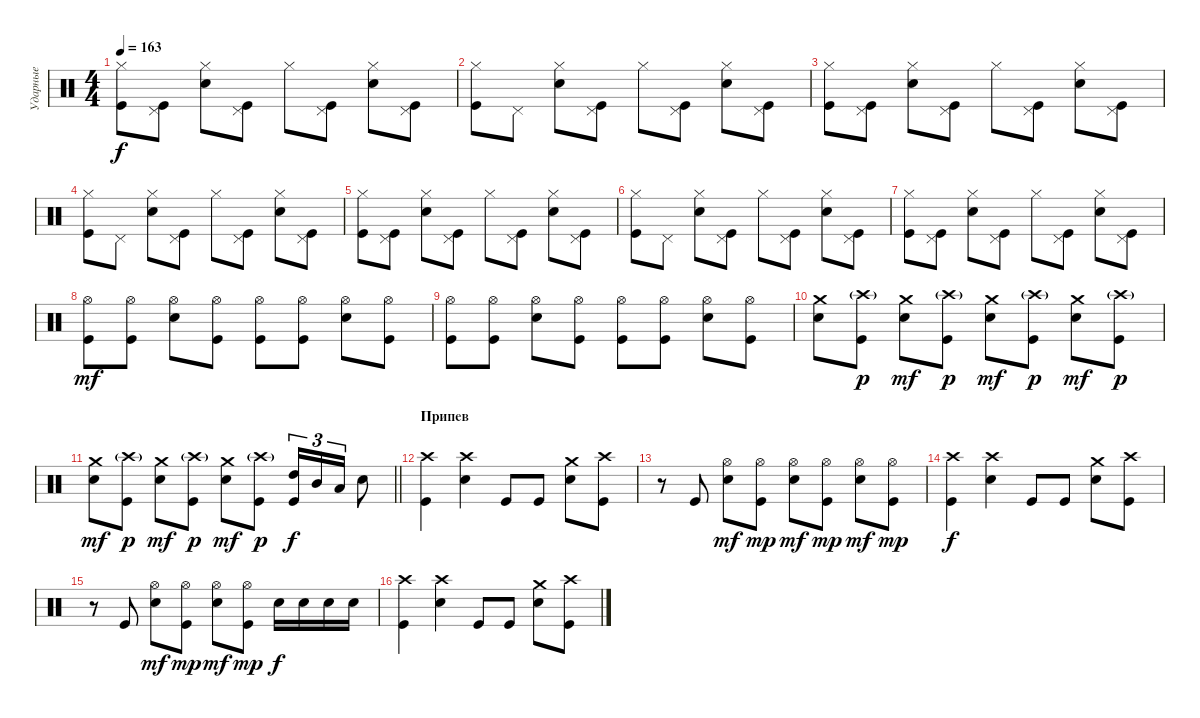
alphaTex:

\track ("Ударные" "Ударные") {instrument percussion}
\staff
\articulation defaults
\ts (4 4)
\tempo 163
\clef neutral
\ks c
("Hi-Hat (closed)" "Kick (hit)").8{dy f} ("Pedal Hi-Hat (hit)" "Kick (hit)").8 ("Hi-Hat (closed)" "Snare (hit) 2").8 ("Pedal Hi-Hat (hit)" "Kick (hit)").8 "Hi-Hat (closed)".8 ("Pedal Hi-Hat (hit)" "Kick (hit)").8 ("Hi-Hat (closed)" "Snare (hit) 2").8 ("Pedal Hi-Hat (hit)" "Kick (hit)").8 |
("Hi-Hat (closed)" "Kick (hit)").8 "Pedal Hi-Hat (hit)".8 ("Hi-Hat (closed)" "Snare (hit) 2").8 ("Pedal Hi-Hat (hit)" "Kick (hit)").8 "Hi-Hat (closed)".8 ("Pedal Hi-Hat (hit)" "Kick (hit)").8 ("Hi-Hat (closed)" "Snare (hit) 2").8 ("Pedal Hi-Hat (hit)" "Kick (hit)").8 |
("Hi-Hat (closed)" "Kick (hit)").8 ("Pedal Hi-Hat (hit)" "Kick (hit)").8 ("Hi-Hat (closed)" "Snare (hit) 2").8 ("Pedal Hi-Hat (hit)" "Kick (hit)").8 "Hi-Hat (closed)".8 ("Pedal Hi-Hat (hit)" "Kick (hit)").8 ("Hi-Hat (closed)" "Snare (hit) 2").8 ("Pedal Hi-Hat (hit)" "Kick (hit)").8 |
("Hi-Hat (closed)" "Kick (hit)").8 "Pedal Hi-Hat (hit)".8 ("Hi-Hat (closed)" "Snare (hit) 2").8 ("Pedal Hi-Hat (hit)" "Kick (hit)").8 "Hi-Hat (closed)".8 ("Pedal Hi-Hat (hit)" "Kick (hit)").8 ("Hi-Hat (closed)" "Snare (hit) 2").8 ("Pedal Hi-Hat (hit)" "Kick (hit)").8 |
("Hi-Hat (closed)" "Kick (hit)").8 ("Pedal Hi-Hat (hit)" "Kick (hit)").8 ("Hi-Hat (closed)" "Snare (hit) 2").8 ("Pedal Hi-Hat (hit)" "Kick (hit)").8 "Hi-Hat (closed)".8 ("Pedal Hi-Hat (hit)" "Kick (hit)").8 ("Hi-Hat (closed)" "Snare (hit) 2").8 ("Pedal Hi-Hat (hit)" "Kick (hit)").8 |
("Hi-Hat (closed)" "Kick (hit)").8 "Pedal Hi-Hat (hit)".8 ("Hi-Hat (closed)" "Snare (hit) 2").8 ("Pedal Hi-Hat (hit)" "Kick (hit)").8 "Hi-Hat (closed)".8 ("Pedal Hi-Hat (hit)" "Kick (hit)").8 ("Hi-Hat (closed)" "Snare (hit) 2").8 ("Pedal Hi-Hat (hit)" "Kick (hit)").8 |
("Hi-Hat (closed)" "Kick (hit)").8 ("Pedal Hi-Hat (hit)" "Kick (hit)").8 ("Hi-Hat (closed)" "Snare (hit) 2").8 ("Pedal Hi-Hat (hit)" "Kick (hit)").8 "Hi-Hat (closed)".8 ("Pedal Hi-Hat (hit)" "Kick (hit)").8 ("Hi-Hat (closed)" "Snare (hit) 2").8 ("Pedal Hi-Hat (hit)" "Kick (hit)").8 |
("Hi-Hat (open)" "Kick (hit)").8{dy mf} ("Hi-Hat (open)" "Kick (hit)").8 ("Hi-Hat (open)" "Snare (hit) 2").8 ("Hi-Hat (open)" "Kick (hit)").8 ("Hi-Hat (open)" "Kick (hit)").8 ("Hi-Hat (open)" "Kick (hit)").8 ("Hi-Hat (open)" "Snare (hit) 2").8 ("Hi-Hat (open)" "Kick (hit)").8 |
("Hi-Hat (open)" "Kick (hit)").8 ("Hi-Hat (open)" "Kick (hit)").8 ("Hi-Hat (open)" "Snare (hit) 2").8 ("Hi-Hat (open)" "Kick (hit)").8 ("Hi-Hat (open)" "Kick (hit)").8 ("Hi-Hat (open)" "Kick (hit)").8 ("Hi-Hat (open)" "Snare (hit) 2").8 ("Hi-Hat (open)" "Kick (hit)").8 |
("Crash medium (hit)" "Snare (hit) 2").8 ("Crash high (hit)"{g} "Kick (hit)").8{dy p} ("Crash medium (hit)" "Snare (hit) 2").8{dy mf} ("Crash high (hit)"{g} "Kick (hit)").8{dy p} ("Crash medium (hit)" "Snare (hit) 2").8{dy mf} ("Crash high (hit)"{g} "Kick (hit)").8{dy p} ("Crash medium (hit)" "Snare (hit) 2").8{dy mf} ("Crash high (hit)"{g} "Kick (hit)").8{dy p} |
\barLineRight lightlight
("Crash medium (hit)" "Snare (hit) 2").8{dy mf} ("Crash high (hit)"{g} "Kick (hit)").8{dy p} ("Crash medium (hit)" "Snare (hit) 2").8{dy mf} ("Crash high (hit)"{g} "Kick (hit)").8{dy p} ("Crash medium (hit)" "Snare (hit) 2").8{dy mf} ("Crash high (hit)"{g} "Kick (hit)").8{dy p} ("High Tom (hit)" "Kick (hit)").16{tu (3 2) dy f} "Mid Tom (hit)".16{tu (3 2)} "Low Tom (hit)".16{tu (3 2)} "Snare (hit) 2".8 |
\section ("" "Припев")
("Crash high (hit)" "Kick (hit)").4 ("Crash high (hit)" "Snare (hit) 2").4 "Kick (hit)".8 "Kick (hit)".8 ("Crash medium (hit)" "Snare (hit) 2").8 ("Crash high (hit)" "Kick (hit)").8 |
r.8 "Kick (hit)".8 ("Hi-Hat (open)" "Snare (hit) 2").8{dy mf} ("Hi-Hat (open)" "Kick (hit)").8{dy mp} ("Hi-Hat (open)" "Snare (hit) 2").8{dy mf} ("Hi-Hat (open)" "Kick (hit)").8{dy mp} ("Hi-Hat (open)" "Snare (hit) 2").8{dy mf} ("Hi-Hat (open)" "Kick (hit)").8{dy mp} |
("Crash high (hit)" "Kick (hit)").4{dy f} ("Crash high (hit)" "Snare (hit) 2").4 "Kick (hit)".8 "Kick (hit)".8 ("Crash medium (hit)" "Snare (hit) 2").8 ("Crash high (hit)" "Kick (hit)").8 |
r.8 "Kick (hit)".8 ("Hi-Hat (open)" "Snare (hit) 2").8{dy mf} ("Hi-Hat (open)" "Kick (hit)").8{dy mp} ("Hi-Hat (open)" "Snare (hit) 2").8{dy mf} ("Hi-Hat (open)" "Kick (hit)").8{dy mp} "Snare (hit) 2".16{dy f} "Snare (hit) 2".16 "Snare (hit) 2".16 "Snare (hit) 2".16 |
("Crash high (hit)" "Kick (hit)").4 ("Crash high (hit)" "Snare (hit) 2").4 "Kick (hit)".8 "Kick (hit)".8 ("Crash medium (hit)" "Snare (hit) 2").8 ("Crash high (hit)" "Kick (hit)").8
